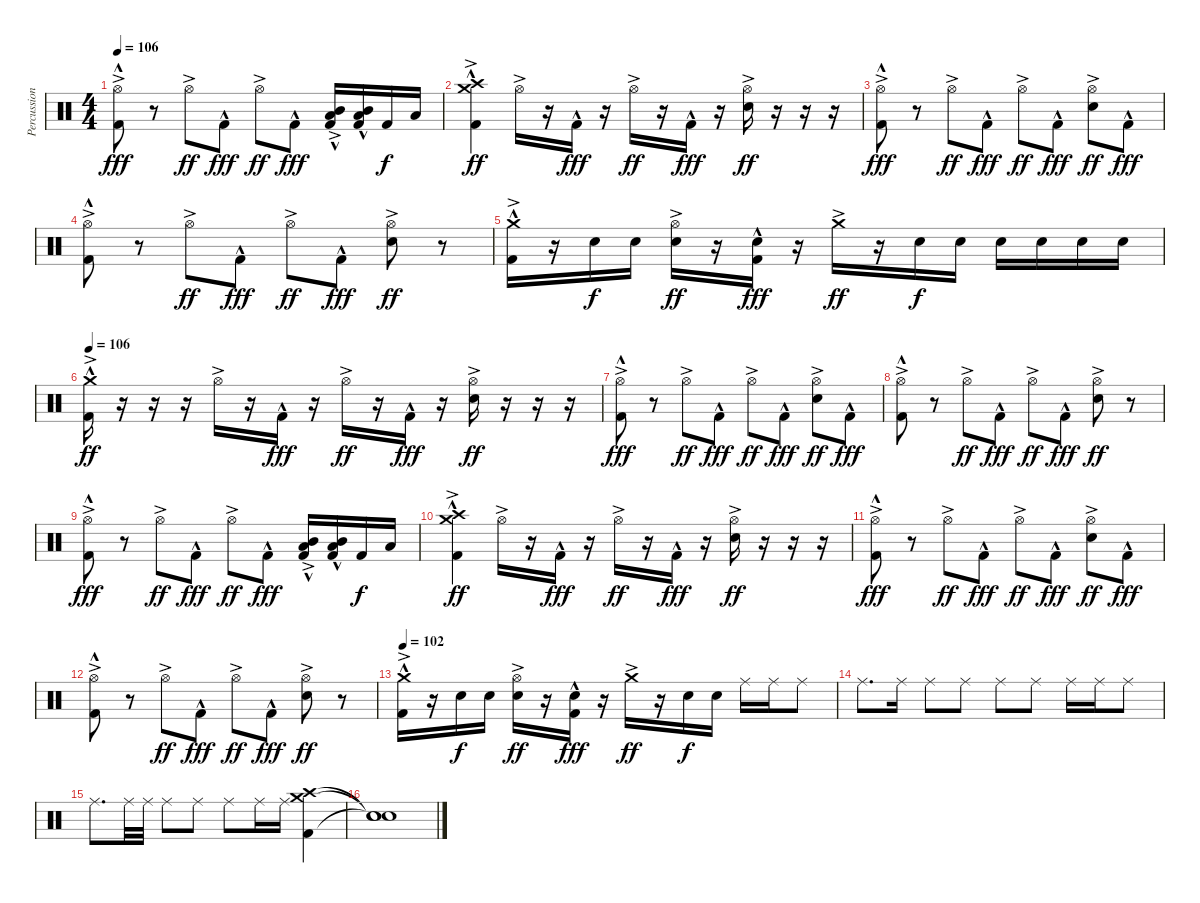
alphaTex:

\track ("Percussion" "Percussion") {instrument percussion}
\staff {score}
\articulation defaults
\ts (4 4)
\tempo 106
\clef neutral
\ks c
("Hi-Hat (open)"{ac} "Kick (hit) 2"{hac}).8{dy fff} r.8 "Hi-Hat (open)"{ac}.8{dy ff} "Kick (hit) 2"{hac}.8{dy fff} "Hi-Hat (open)"{ac}.8{dy ff} "Kick (hit) 2"{hac}.8{dy fff} ("Low Tom (hit)"{ac} "Mid Tom (hit)"{hac} "Kick (hit) 2").16 ("Low Tom (hit)"{hac} "Mid Tom (hit)"{hac} "Kick (hit) 2").16 "Kick (hit) 2".16{dy f} "Low Tom (hit)".16 |
("Crash medium (hit)"{hac} "Crash high (hit)"{hac} "Kick (hit) 2"{ac}).4{dy ff} "Hi-Hat (open)"{ac}.16 r.16 "Kick (hit) 2"{hac}.16{dy fff} r.16 "Hi-Hat (open)"{ac}.16{dy ff} r.16 "Kick (hit) 2"{hac}.16{dy fff} r.16 ("Hi-Hat (open)"{ac} "Snare (hit) 2"{ac}).16{dy ff} r.16 r.16 r.16 |
("Hi-Hat (open)"{ac} "Kick (hit) 2"{hac}).8{dy fff} r.8 "Hi-Hat (open)"{ac}.8{dy ff} "Kick (hit) 2"{hac}.8{dy fff} "Hi-Hat (open)"{ac}.8{dy ff} "Kick (hit) 2"{hac}.8{dy fff} ("Hi-Hat (open)"{ac} "Snare (hit) 2"{ac}).8{dy ff} "Kick (hit) 2"{hac}.8{dy fff} |
("Hi-Hat (open)"{ac} "Kick (hit) 2"{hac}).8 r.8 "Hi-Hat (open)"{ac}.8{dy ff} "Kick (hit) 2"{hac}.8{dy fff} "Hi-Hat (open)"{ac}.8{dy ff} "Kick (hit) 2"{hac}.8{dy fff} ("Hi-Hat (open)"{ac} "Snare (hit) 2"{ac}).8{dy ff} r.8 |
("Crash medium (hit)"{hac} "Kick (hit) 2"{ac}).16 r.16 "Snare (hit) 2".16{dy f} "Snare (hit) 2".16 ("Hi-Hat (open)"{ac} "Snare (hit) 2").16{dy ff} r.16 ("Snare (hit) 2" "Kick (hit) 2"{hac}).16{dy fff} r.16 "Crash medium (hit)"{ac}.16{dy ff} r.16 "Snare (hit) 2".16{dy f} "Snare (hit) 2".16 "Snare (hit) 2".16 "Snare (hit) 2".16 "Snare (hit) 2".16 "Snare (hit) 2".16 |
\tempo 106
("Crash medium (hit)"{hac} "Kick (hit) 2"{ac}).16{dy ff} r.16 r.16 r.16 "Hi-Hat (open)"{ac}.16 r.16 "Kick (hit) 2"{hac}.16{dy fff} r.16 "Hi-Hat (open)"{ac}.16{dy ff} r.16 "Kick (hit) 2"{hac}.16{dy fff} r.16 ("Hi-Hat (open)"{ac} "Snare (hit) 2"{ac}).16{dy ff} r.16 r.16 r.16 |
("Hi-Hat (open)"{ac} "Kick (hit) 2"{hac}).8{dy fff} r.8 "Hi-Hat (open)"{ac}.8{dy ff} "Kick (hit) 2"{hac}.8{dy fff} "Hi-Hat (open)"{ac}.8{dy ff} "Kick (hit) 2"{hac}.8{dy fff} ("Hi-Hat (open)"{ac} "Snare (hit) 2"{ac}).8{dy ff} "Kick (hit) 2"{hac}.8{dy fff} |
("Hi-Hat (open)"{ac} "Kick (hit) 2"{hac}).8 r.8 "Hi-Hat (open)"{ac}.8{dy ff} "Kick (hit) 2"{hac}.8{dy fff} "Hi-Hat (open)"{ac}.8{dy ff} "Kick (hit) 2"{hac}.8{dy fff} ("Hi-Hat (open)"{ac} "Snare (hit) 2"{ac}).8{dy ff} r.8 |
("Hi-Hat (open)"{ac} "Kick (hit) 2"{hac}).8{dy fff} r.8 "Hi-Hat (open)"{ac}.8{dy ff} "Kick (hit) 2"{hac}.8{dy fff} "Hi-Hat (open)"{ac}.8{dy ff} "Kick (hit) 2"{hac}.8{dy fff} ("Low Tom (hit)"{ac} "Mid Tom (hit)"{hac} "Kick (hit) 2").16 ("Low Tom (hit)"{hac} "Mid Tom (hit)"{hac} "Kick (hit) 2").16 "Kick (hit) 2".16{dy f} "Low Tom (hit)".16 |
("Crash medium (hit)"{hac} "Crash high (hit)"{hac} "Kick (hit) 2"{ac}).4{dy ff} "Hi-Hat (open)"{ac}.16 r.16 "Kick (hit) 2"{hac}.16{dy fff} r.16 "Hi-Hat (open)"{ac}.16{dy ff} r.16 "Kick (hit) 2"{hac}.16{dy fff} r.16 ("Hi-Hat (open)"{ac} "Snare (hit) 2"{ac}).16{dy ff} r.16 r.16 r.16 |
("Hi-Hat (open)"{ac} "Kick (hit) 2"{hac}).8{dy fff} r.8 "Hi-Hat (open)"{ac}.8{dy ff} "Kick (hit) 2"{hac}.8{dy fff} "Hi-Hat (open)"{ac}.8{dy ff} "Kick (hit) 2"{hac}.8{dy fff} ("Hi-Hat (open)"{ac} "Snare (hit) 2"{ac}).8{dy ff} "Kick (hit) 2"{hac}.8{dy fff} |
("Hi-Hat (open)"{ac} "Kick (hit) 2"{hac}).8 r.8 "Hi-Hat (open)"{ac}.8{dy ff} "Kick (hit) 2"{hac}.8{dy fff} "Hi-Hat (open)"{ac}.8{dy ff} "Kick (hit) 2"{hac}.8{dy fff} ("Hi-Hat (open)"{ac} "Snare (hit) 2"{ac}).8{dy ff} r.8 |
\tempo 102
("Crash medium (hit)"{hac} "Kick (hit) 2"{ac}).16 r.16 "Snare (hit) 2".16{dy f} "Snare (hit) 2".16 ("Hi-Hat (open)"{ac} "Snare (hit) 2").16{dy ff} r.16 ("Snare (hit) 2" "Kick (hit) 2"{hac}).16{dy fff} r.16 "Crash medium (hit)"{ac}.16{dy ff} r.16 "Snare (hit) 2".16{dy f} "Snare (hit) 2".16 "Ride (middle)".16 "Ride (middle)".16 "Ride (middle)".8 |
"Ride (middle)".8{d} "Ride (middle)".16 "Ride (middle)".8 "Ride (middle)".8 "Ride (middle)".8 "Ride (middle)".8 "Ride (middle)".16 "Ride (middle)".16 "Ride (middle)".8 |
"Ride (middle)".8{d} "Ride (middle)".32 "Ride (middle)".32 "Ride (middle)".8 "Ride (middle)".8 "Ride (middle)".8 "Ride (middle)".16 "Ride (middle)".16 ("Crash medium (hit)" "Crash high (hit)" "Kick (hit) 2").4 |
("Snare (hit)"{t} "Snare (hit)"{t} "Snare (hit)"{t}).1
